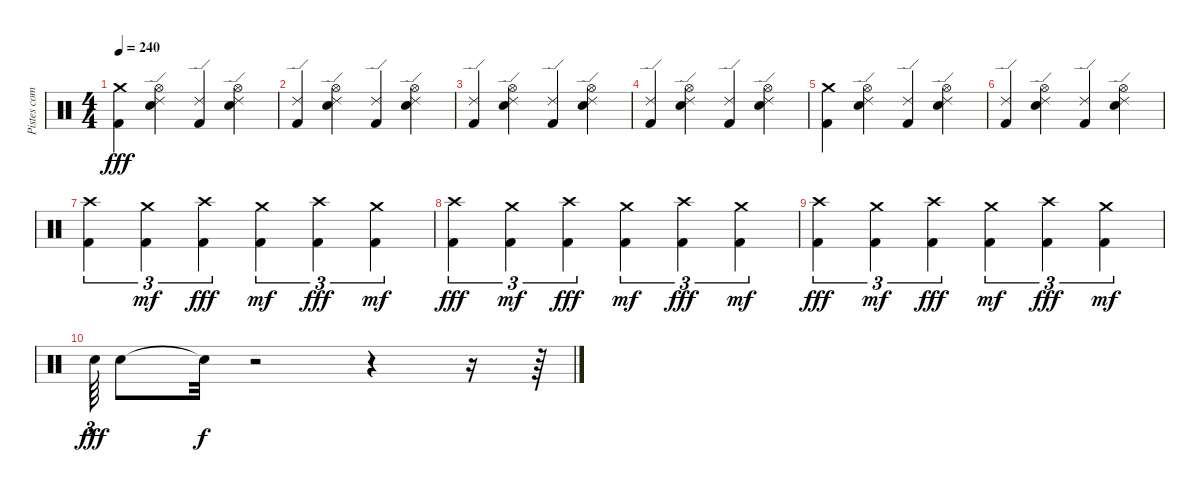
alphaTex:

\track ("Pistes combinées" "Pistes com") {instrument percussion}
\staff {score}
\articulation defaults
\ts (4 4)
\tempo 240
\clef neutral
\ks c
("Kick (hit) 2" "Crash medium (hit)").4{dy fff} ("Electric Snare (hit)" "Ride (edge) 2" "Hi-Hat (open)").4 ("Kick (hit) 2" "Ride (edge) 2").4 ("Electric Snare (hit)" "Ride (edge) 2" "Hi-Hat (open)").4 |
("Kick (hit) 2" "Ride (edge) 2").4 ("Electric Snare (hit)" "Ride (edge) 2" "Hi-Hat (open)").4 ("Kick (hit) 2" "Ride (edge) 2").4 ("Electric Snare (hit)" "Ride (edge) 2" "Hi-Hat (open)").4 |
("Kick (hit) 2" "Ride (edge) 2").4 ("Electric Snare (hit)" "Ride (edge) 2" "Hi-Hat (open)").4 ("Kick (hit) 2" "Ride (edge) 2").4 ("Electric Snare (hit)" "Ride (edge) 2" "Hi-Hat (open)").4 |
("Kick (hit) 2" "Ride (edge) 2").4 ("Electric Snare (hit)" "Ride (edge) 2" "Hi-Hat (open)").4 ("Kick (hit) 2" "Ride (edge) 2").4 ("Electric Snare (hit)" "Ride (edge) 2" "Hi-Hat (open)").4 |
("Kick (hit) 2" "Crash medium (hit)").4 ("Electric Snare (hit)" "Ride (edge) 2" "Hi-Hat (open)").4 ("Kick (hit) 2" "Ride (edge) 2").4 ("Electric Snare (hit)" "Ride (edge) 2" "Hi-Hat (open)").4 |
("Kick (hit) 2" "Ride (edge) 2").4 ("Electric Snare (hit)" "Ride (edge) 2" "Hi-Hat (open)").4 ("Kick (hit) 2" "Ride (edge) 2").4 ("Electric Snare (hit)" "Ride (edge) 2" "Hi-Hat (open)").4 |
("Kick (hit) 2" "Crash high (hit)").4{tu (3 2)} ("Kick (hit) 2" "Crash medium (hit)").4{tu (3 2) dy mf} ("Kick (hit) 2" "Crash high (hit)").4{tu (3 2) dy fff} ("Kick (hit) 2" "Crash medium (hit)").4{tu (3 2) dy mf} ("Kick (hit) 2" "Crash high (hit)").4{tu (3 2) dy fff} ("Kick (hit) 2" "Crash medium (hit)").4{tu (3 2) dy mf} |
("Kick (hit) 2" "Crash high (hit)").4{tu (3 2) dy fff} ("Kick (hit) 2" "Crash medium (hit)").4{tu (3 2) dy mf} ("Kick (hit) 2" "Crash high (hit)").4{tu (3 2) dy fff} ("Kick (hit) 2" "Crash medium (hit)").4{tu (3 2) dy mf} ("Kick (hit) 2" "Crash high (hit)").4{tu (3 2) dy fff} ("Kick (hit) 2" "Crash medium (hit)").4{tu (3 2) dy mf} |
("Kick (hit) 2" "Crash high (hit)").4{tu (3 2) dy fff} ("Kick (hit) 2" "Crash medium (hit)").4{tu (3 2) dy mf} ("Kick (hit) 2" "Crash high (hit)").4{tu (3 2) dy fff} ("Kick (hit) 2" "Crash medium (hit)").4{tu (3 2) dy mf} ("Kick (hit) 2" "Crash high (hit)").4{tu (3 2) dy fff} ("Kick (hit) 2" "Crash medium (hit)").4{tu (3 2) dy mf} |
"Electric Snare (hit)".64{tu (3 2) dy fff} "Electric Snare (hit)".8 "Snare (hit)"{t}.32{dy f} r.2 r.4 r.16 r.64
